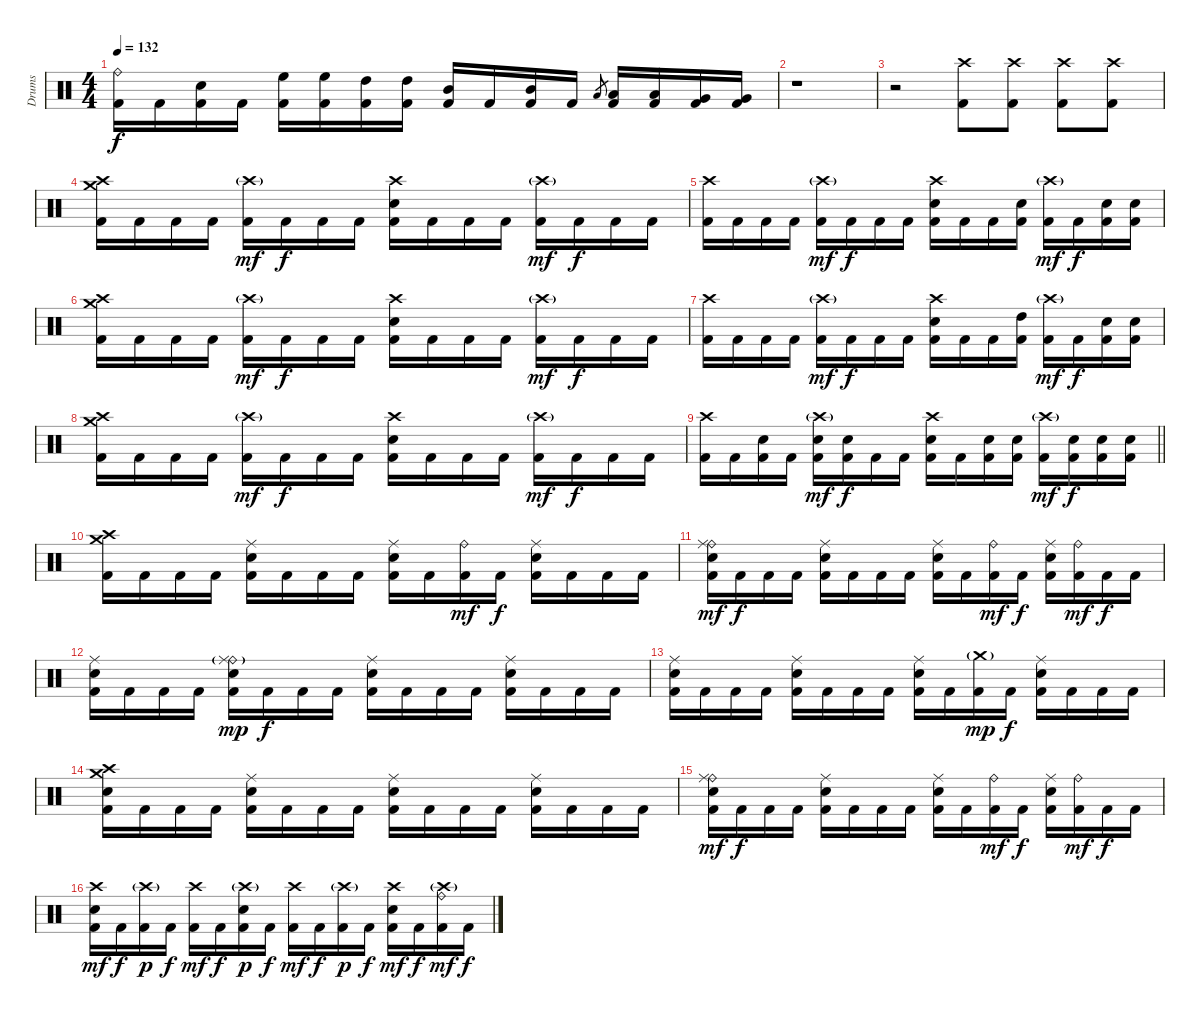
\track ("Drums" "Drums") {instrument percussion}
\staff {score}
\articulation defaults
\ts (4 4)
\tempo 132
\clef neutral
\ks c
("Ride (bell)" "Kick (hit) 2").16{dy f} "Kick (hit) 2".16 ("Electric Snare (hit)" "Kick (hit) 2").16 "Kick (hit) 2".16 ("High Floor Tom (hit)" "Kick (hit) 2").16 ("High Floor Tom (hit)" "Kick (hit) 2").16 ("High Tom (hit)" "Kick (hit) 2").16 ("High Tom (hit)" "Kick (hit) 2").16 ("Mid Tom (hit)" "Kick (hit) 2").16 "Kick (hit) 2".16 ("Mid Tom (hit)" "Kick (hit) 2").16 "Kick (hit) 2".16 "Low Tom (hit)".8{gr} ("Low Tom (hit)" "Kick (hit) 2").16 ("Low Tom (hit)" "Kick (hit) 2").16 ("Very Low Tom (hit)" "Kick (hit) 2").16 ("Very Low Tom (hit)" "Kick (hit) 2").16 |
r.1 |
r.2 ("Crash high (hit)" "Kick (hit) 2").8 ("Crash high (hit)" "Kick (hit) 2").8 ("Crash high (hit)" "Kick (hit) 2").8 ("Crash high (hit)" "Kick (hit) 2").8 |
("Crash high (hit)" "Crash medium (hit)" "Kick (hit) 2").16 "Kick (hit) 2".16 "Kick (hit) 2".16 "Kick (hit) 2".16 ("Crash high (hit)"{g} "Kick (hit) 2").16{dy mf} "Kick (hit) 2".16{dy f} "Kick (hit) 2".16 "Kick (hit) 2".16 ("Crash high (hit)" "Electric Snare (hit)" "Kick (hit) 2").16 "Kick (hit) 2".16 "Kick (hit) 2".16 "Kick (hit) 2".16 ("Crash high (hit)"{g} "Kick (hit) 2").16{dy mf} "Kick (hit) 2".16{dy f} "Kick (hit) 2".16 "Kick (hit) 2".16 |
("Crash high (hit)" "Kick (hit) 2").16 "Kick (hit) 2".16 "Kick (hit) 2".16 "Kick (hit) 2".16 ("Crash high (hit)"{g} "Kick (hit) 2").16{dy mf} "Kick (hit) 2".16{dy f} "Kick (hit) 2".16 "Kick (hit) 2".16 ("Crash high (hit)" "Electric Snare (hit)" "Kick (hit) 2").16 "Kick (hit) 2".16 "Kick (hit) 2".16 ("Electric Snare (hit)" "Kick (hit) 2").16 ("Crash high (hit)"{g} "Kick (hit) 2").16{dy mf} "Kick (hit) 2".16{dy f} ("Electric Snare (hit)" "Kick (hit) 2").16 ("Electric Snare (hit)" "Kick (hit) 2").16 |
("Crash high (hit)" "Crash medium (hit)" "Kick (hit) 2").16 "Kick (hit) 2".16 "Kick (hit) 2".16 "Kick (hit) 2".16 ("Crash high (hit)"{g} "Kick (hit) 2").16{dy mf} "Kick (hit) 2".16{dy f} "Kick (hit) 2".16 "Kick (hit) 2".16 ("Crash high (hit)" "Electric Snare (hit)" "Kick (hit) 2").16 "Kick (hit) 2".16 "Kick (hit) 2".16 "Kick (hit) 2".16 ("Crash high (hit)"{g} "Kick (hit) 2").16{dy mf} "Kick (hit) 2".16{dy f} "Kick (hit) 2".16 "Kick (hit) 2".16 |
("Crash high (hit)" "Kick (hit) 2").16 "Kick (hit) 2".16 "Kick (hit) 2".16 "Kick (hit) 2".16 ("Crash high (hit)"{g} "Kick (hit) 2").16{dy mf} "Kick (hit) 2".16{dy f} "Kick (hit) 2".16 "Kick (hit) 2".16 ("Crash high (hit)" "Electric Snare (hit)" "Kick (hit) 2").16 "Kick (hit) 2".16 "Kick (hit) 2".16 ("High Tom (hit)" "Kick (hit) 2").16 ("Crash high (hit)"{g} "Kick (hit) 2").16{dy mf} "Kick (hit) 2".16{dy f} ("Electric Snare (hit)" "Kick (hit) 2").16 ("Electric Snare (hit)" "Kick (hit) 2").16 |
("Crash high (hit)" "Crash medium (hit)" "Kick (hit) 2").16 "Kick (hit) 2".16 "Kick (hit) 2".16 "Kick (hit) 2".16 ("Crash high (hit)"{g} "Kick (hit) 2").16{dy mf} "Kick (hit) 2".16{dy f} "Kick (hit) 2".16 "Kick (hit) 2".16 ("Crash high (hit)" "Electric Snare (hit)" "Kick (hit) 2").16 "Kick (hit) 2".16 "Kick (hit) 2".16 "Kick (hit) 2".16 ("Crash high (hit)"{g} "Kick (hit) 2").16{dy mf} "Kick (hit) 2".16{dy f} "Kick (hit) 2".16 "Kick (hit) 2".16 |
\barLineRight lightlight
("Crash high (hit)" "Kick (hit) 2").16 "Kick (hit) 2".16 ("Electric Snare (hit)" "Kick (hit) 2").16 "Kick (hit) 2".16 ("Crash high (hit)"{g} "Electric Snare (hit)" "Kick (hit) 2").16{dy mf} ("Electric Snare (hit)" "Kick (hit) 2").16{dy f} "Kick (hit) 2".16 "Kick (hit) 2".16 ("Crash high (hit)" "Electric Snare (hit)" "Kick (hit) 2").16 "Kick (hit) 2".16 ("Electric Snare (hit)" "Kick (hit) 2").16 ("Electric Snare (hit)" "Kick (hit) 2").16 ("Crash high (hit)"{g} "Kick (hit) 2").16{dy mf} ("Electric Snare (hit)" "Kick (hit) 2").16{dy f} ("Electric Snare (hit)" "Kick (hit) 2").16 ("Electric Snare (hit)" "Kick (hit) 2").16 |
("Crash high (hit)" "Crash medium (hit)" "Kick (hit) 2").16 "Kick (hit) 2".16 "Kick (hit) 2".16 "Kick (hit) 2".16 ("Ride (middle)" "Electric Snare (hit)" "Kick (hit) 2").16 "Kick (hit) 2".16 "Kick (hit) 2".16 "Kick (hit) 2".16 ("Ride (middle)" "Electric Snare (hit)" "Kick (hit) 2").16 "Kick (hit) 2".16 ("Ride (bell)" "Kick (hit) 2").16{dy mf} "Kick (hit) 2".16{dy f} ("Ride (middle)" "Electric Snare (hit)" "Kick (hit) 2").16 "Kick (hit) 2".16 "Kick (hit) 2".16 "Kick (hit) 2".16 |
("Ride (bell)" "Ride (middle)" "Electric Snare (hit)" "Kick (hit) 2").16{dy mf} "Kick (hit) 2".16{dy f} "Kick (hit) 2".16 "Kick (hit) 2".16 ("Ride (middle)" "Electric Snare (hit)" "Kick (hit) 2").16 "Kick (hit) 2".16 "Kick (hit) 2".16 "Kick (hit) 2".16 ("Ride (middle)" "Electric Snare (hit)" "Kick (hit) 2").16 "Kick (hit) 2".16 ("Ride (bell)" "Kick (hit) 2").16{dy mf} "Kick (hit) 2".16{dy f} ("Ride (middle)" "Electric Snare (hit)" "Kick (hit) 2").16 ("Ride (bell)" "Kick (hit) 2").16{dy mf} "Kick (hit) 2".16{dy f} "Kick (hit) 2".16 |
("Ride (middle)" "Electric Snare (hit)" "Kick (hit) 2").16 "Kick (hit) 2".16 "Kick (hit) 2".16 "Kick (hit) 2".16 ("Ride (bell)"{g} "Ride (middle)" "Electric Snare (hit)" "Kick (hit) 2").16{dy mp} "Kick (hit) 2".16{dy f} "Kick (hit) 2".16 "Kick (hit) 2".16 ("Ride (middle)" "Electric Snare (hit)" "Kick (hit) 2").16 "Kick (hit) 2".16 "Kick (hit) 2".16 "Kick (hit) 2".16 ("Ride (middle)" "Electric Snare (hit)" "Kick (hit) 2").16 "Kick (hit) 2".16 "Kick (hit) 2".16 "Kick (hit) 2".16 |
("Ride (middle)" "Electric Snare (hit)" "Kick (hit) 2").16 "Kick (hit) 2".16 "Kick (hit) 2".16 "Kick (hit) 2".16 ("Ride (middle)" "Electric Snare (hit)" "Kick (hit) 2").16 "Kick (hit) 2".16 "Kick (hit) 2".16 "Kick (hit) 2".16 ("Ride (middle)" "Electric Snare (hit)" "Kick (hit) 2").16 "Kick (hit) 2".16 ("Crash medium (hit)"{g} "Kick (hit) 2").16{dy mp} "Kick (hit) 2".16{dy f} ("Ride (middle)" "Electric Snare (hit)" "Kick (hit) 2").16 "Kick (hit) 2".16 "Kick (hit) 2".16 "Kick (hit) 2".16 |
("Crash high (hit)" "Crash medium (hit)" "Electric Snare (hit)" "Kick (hit) 2").16 "Kick (hit) 2".16 "Kick (hit) 2".16 "Kick (hit) 2".16 ("Ride (middle)" "Electric Snare (hit)" "Kick (hit) 2").16 "Kick (hit) 2".16 "Kick (hit) 2".16 "Kick (hit) 2".16 ("Ride (middle)" "Electric Snare (hit)" "Kick (hit) 2").16 "Kick (hit) 2".16 "Kick (hit) 2".16 "Kick (hit) 2".16 ("Ride (middle)" "Electric Snare (hit)" "Kick (hit) 2").16 "Kick (hit) 2".16 "Kick (hit) 2".16 "Kick (hit) 2".16 |
("Ride (bell)" "Ride (middle)" "Electric Snare (hit)" "Kick (hit) 2").16{dy mf} "Kick (hit) 2".16{dy f} "Kick (hit) 2".16 "Kick (hit) 2".16 ("Ride (middle)" "Electric Snare (hit)" "Kick (hit) 2").16 "Kick (hit) 2".16 "Kick (hit) 2".16 "Kick (hit) 2".16 ("Ride (middle)" "Electric Snare (hit)" "Kick (hit) 2").16 "Kick (hit) 2".16 ("Ride (bell)" "Kick (hit) 2").16{dy mf} "Kick (hit) 2".16{dy f} ("Ride (middle)" "Electric Snare (hit)" "Kick (hit) 2").16 ("Ride (bell)" "Kick (hit) 2").16{dy mf} "Kick (hit) 2".16{dy f} "Kick (hit) 2".16 |
("Crash high (hit)" "Electric Snare (hit)" "Kick (hit) 2").16{dy mf} "Kick (hit) 2".16{dy f} ("Crash high (hit)"{g} "Kick (hit) 2").16{dy p} "Kick (hit) 2".16{dy f} ("Crash high (hit)" "Kick (hit) 2").16{dy mf} "Kick (hit) 2".16{dy f} ("Crash high (hit)"{g} "Electric Snare (hit)" "Kick (hit) 2").16{dy p} "Kick (hit) 2".16{dy f} ("Crash high (hit)" "Kick (hit) 2").16{dy mf} "Kick (hit) 2".16{dy f} ("Crash high (hit)"{g} "Kick (hit) 2").16{dy p} "Kick (hit) 2".16{dy f} ("Crash high (hit)" "Electric Snare (hit)" "Kick (hit) 2").16{dy mf} "Kick (hit) 2".16{dy f} ("Crash high (hit)"{g} "Ride (bell)" "Kick (hit) 2").16{dy mf} "Kick (hit) 2".16{dy f}
